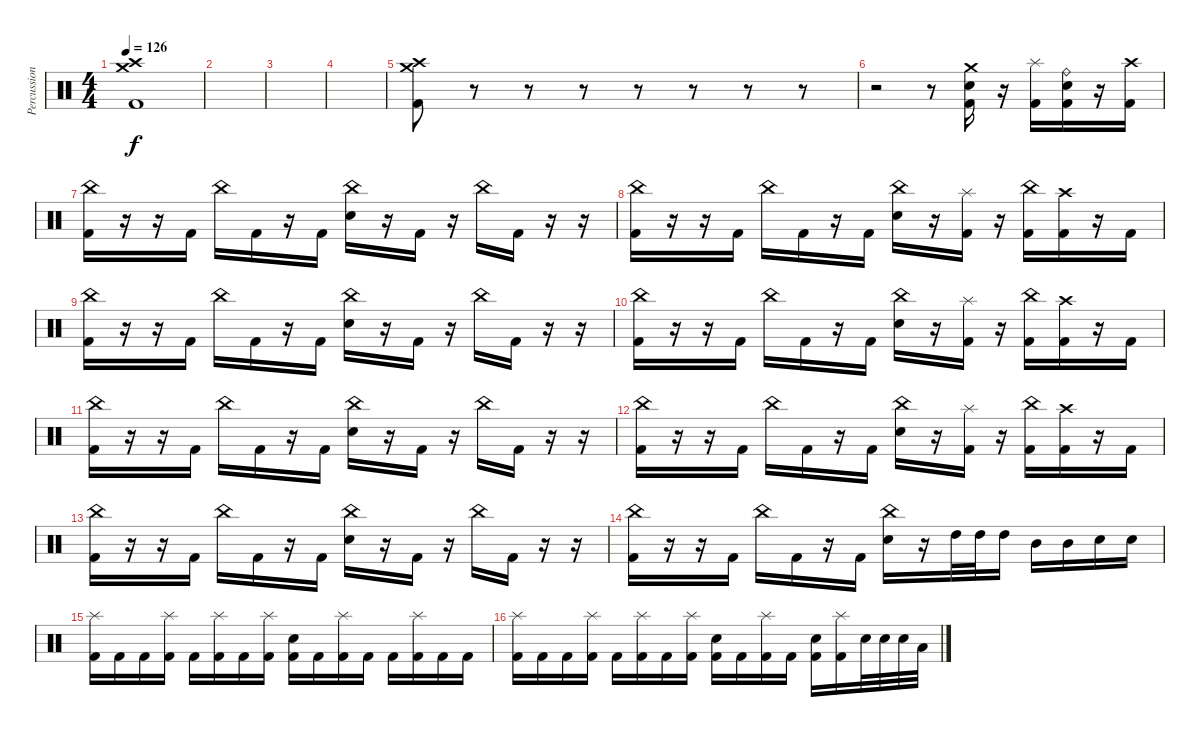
\track ("Percussion" "Percussion") {instrument percussion}
\staff {score}
\articulation defaults
\ts (4 4)
\tempo 126
\clef neutral
\ks c
("Crash high (hit)" "Crash medium (hit)" "Kick (hit) 2").1{dy f} |
|
|
|
("Crash high (hit)" "Crash medium (hit)" "Kick (hit) 2").8 r.8{volume 0} r.8 r.8 r.8 r.8 r.8 r.8 |
r.2{volume 13} r.8 ("Crash medium (hit)" "Electric Snare (hit)" "Kick (hit) 2").16 r.16 ("Splash (hit)" "Kick (hit) 2").16 ("Ride (bell)" "Electric Snare (hit)" "Kick (hit) 2").16 r.16 ("Crash high (hit)" "Kick (hit) 2").16 |
("China (hit)" "Kick (hit) 2").16 r.16 r.16 "Kick (hit) 2".16 "China (hit)".16 "Kick (hit) 2".16 r.16 "Kick (hit) 2".16 ("China (hit)" "Electric Snare (hit)").16 r.16 "Kick (hit) 2".16 r.16 "China (hit)".16 "Kick (hit) 2".16 r.16 r.16 |
("China (hit)" "Kick (hit) 2").16 r.16 r.16 "Kick (hit) 2".16 "China (hit)".16 "Kick (hit) 2".16 r.16 "Kick (hit) 2".16 ("China (hit)" "Electric Snare (hit)").16 r.16 ("Splash (hit)" "Kick (hit) 2").16 r.16 ("China (hit)" "Kick (hit) 2").16 ("Crash high (hit)" "Kick (hit) 2").16 r.16 "Kick (hit) 2".16 |
("China (hit)" "Kick (hit) 2").16 r.16 r.16 "Kick (hit) 2".16 "China (hit)".16 "Kick (hit) 2".16 r.16 "Kick (hit) 2".16 ("China (hit)" "Electric Snare (hit)").16 r.16 "Kick (hit) 2".16 r.16 "China (hit)".16 "Kick (hit) 2".16 r.16 r.16 |
("China (hit)" "Kick (hit) 2").16 r.16 r.16 "Kick (hit) 2".16 "China (hit)".16 "Kick (hit) 2".16 r.16 "Kick (hit) 2".16 ("China (hit)" "Electric Snare (hit)").16 r.16 ("Splash (hit)" "Kick (hit) 2").16 r.16 ("China (hit)" "Kick (hit) 2").16 ("Crash high (hit)" "Kick (hit) 2").16 r.16 "Kick (hit) 2".16 |
("China (hit)" "Kick (hit) 2").16 r.16 r.16 "Kick (hit) 2".16 "China (hit)".16 "Kick (hit) 2".16 r.16 "Kick (hit) 2".16 ("China (hit)" "Electric Snare (hit)").16 r.16 "Kick (hit) 2".16 r.16 "China (hit)".16 "Kick (hit) 2".16 r.16 r.16 |
("China (hit)" "Kick (hit) 2").16 r.16 r.16 "Kick (hit) 2".16 "China (hit)".16 "Kick (hit) 2".16 r.16 "Kick (hit) 2".16 ("China (hit)" "Electric Snare (hit)").16 r.16 ("Splash (hit)" "Kick (hit) 2").16 r.16 ("China (hit)" "Kick (hit) 2").16 ("Crash high (hit)" "Kick (hit) 2").16 r.16 "Kick (hit) 2".16 |
("China (hit)" "Kick (hit) 2").16 r.16 r.16 "Kick (hit) 2".16 "China (hit)".16 "Kick (hit) 2".16 r.16 "Kick (hit) 2".16 ("China (hit)" "Electric Snare (hit)").16 r.16 "Kick (hit) 2".16 r.16 "China (hit)".16 "Kick (hit) 2".16 r.16 r.16 |
("China (hit)" "Kick (hit) 2").16 r.16 r.16 "Kick (hit) 2".16 "China (hit)".16 "Kick (hit) 2".16 r.16 "Kick (hit) 2".16 ("China (hit)" "Electric Snare (hit)").16 r.16 "High Tom (hit)".32 "High Tom (hit)".32 "High Tom (hit)".16 "Mid Tom (hit)".16 "Mid Tom (hit)".16 "Electric Snare (hit)".16 "Electric Snare (hit)".16 |
("Splash (hit)" "Kick (hit) 2").16 "Kick (hit) 2".16 "Kick (hit) 2".16 ("Splash (hit)" "Kick (hit) 2").16 "Kick (hit) 2".16 ("Splash (hit)" "Kick (hit) 2").16 "Kick (hit) 2".16 ("Splash (hit)" "Kick (hit) 2").16 ("Electric Snare (hit)" "Kick (hit) 2").16 "Kick (hit) 2".16 ("Splash (hit)" "Kick (hit) 2").16 "Kick (hit) 2".16 "Kick (hit) 2".16 ("Splash (hit)" "Kick (hit) 2").16 "Kick (hit) 2".16 "Kick (hit) 2".16 |
("Splash (hit)" "Kick (hit) 2").16 "Kick (hit) 2".16 "Kick (hit) 2".16 ("Splash (hit)" "Kick (hit) 2").16 "Kick (hit) 2".16 ("Splash (hit)" "Kick (hit) 2").16 "Kick (hit) 2".16 ("Splash (hit)" "Kick (hit) 2").16 ("Electric Snare (hit)" "Kick (hit) 2").16 "Kick (hit) 2".16 ("Splash (hit)" "Kick (hit) 2").16 "Kick (hit) 2".16 ("Electric Snare (hit)" "Kick (hit) 2").16 ("Splash (hit)" "Kick (hit) 2").16 "Electric Snare (hit)".32 "Electric Snare (hit)".32 "Electric Snare (hit)".32 "Low Tom (hit)".32
